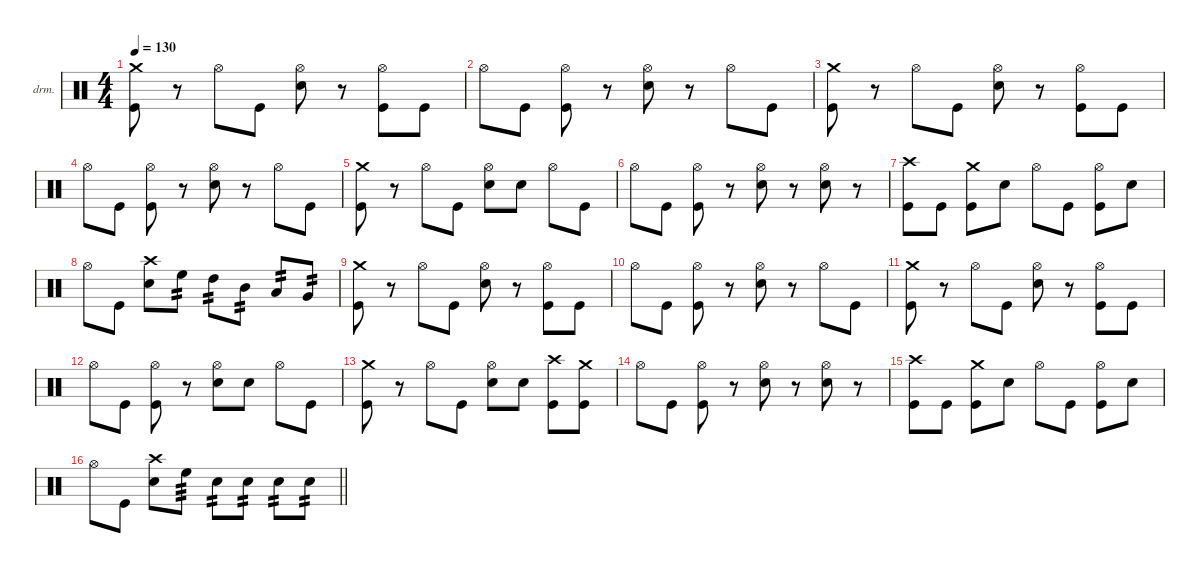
\defaultSystemsLayout 4
\hideDynamics
\bracketExtendMode nobrackets
\firstSystemTrackNameOrientation horizontal
\otherSystemsTrackNameOrientation horizontal
\track ("Drums" "drm.") {instrument percussion}
\staff {score}
\articulation defaults
\ts (4 4)
\section ("" "")
\tempo 130
\clef neutral
\ks c
("Crash medium (hit)" "Kick (hit)").8{dy f} r.8 "Hi-Hat (open)".8 "Kick (hit)".8 ("Hi-Hat (open)" "Snare (hit) 2").8 r.8 ("Hi-Hat (open)" "Kick (hit)").8 "Kick (hit)".8 |
"Hi-Hat (open)".8 "Kick (hit)".8 ("Hi-Hat (open)" "Kick (hit)").8 r.8 ("Hi-Hat (open)" "Snare (hit) 2").8 r.8 "Hi-Hat (open)".8 "Kick (hit)".8 |
("Crash medium (hit)" "Kick (hit)").8 r.8 "Hi-Hat (open)".8 "Kick (hit)".8 ("Hi-Hat (open)" "Snare (hit) 2").8 r.8 ("Hi-Hat (open)" "Kick (hit)").8 "Kick (hit)".8 |
"Hi-Hat (open)".8 "Kick (hit)".8 ("Hi-Hat (open)" "Kick (hit)").8 r.8 ("Hi-Hat (open)" "Snare (hit) 2").8 r.8 "Hi-Hat (open)".8 "Kick (hit)".8 |
("Crash medium (hit)" "Kick (hit)").8 r.8 "Hi-Hat (open)".8 "Kick (hit)".8 ("Hi-Hat (open)" "Snare (hit) 2").8 "Snare (hit) 2".8 "Hi-Hat (open)".8 "Kick (hit)".8 |
"Hi-Hat (open)".8 "Kick (hit)".8 ("Hi-Hat (open)" "Kick (hit)").8 r.8 ("Hi-Hat (open)" "Snare (hit) 2").8 r.8 ("Hi-Hat (open)" "Snare (hit) 2").8 r.8 |
("Crash high (hit)" "Kick (hit)").8 "Kick (hit)".8 ("Crash medium (hit)" "Kick (hit)").8 "Snare (hit) 2".8 "Hi-Hat (open)".8 "Kick (hit)".8 ("Hi-Hat (open)" "Kick (hit)").8 "Snare (hit) 2".8 |
"Hi-Hat (open)".8 "Kick (hit)".8 ("Crash high (hit)" "Snare (hit) 2").8 "High Floor Tom (hit)".8{tp 2} "High Tom (hit)".8{tp 2} "Mid Tom (hit)".8{tp 2} "Low Tom (hit)".8{tp 2} "Very Low Tom (hit)".8{tp 2} |
("Crash medium (hit)" "Kick (hit)").8 r.8 "Hi-Hat (open)".8 "Kick (hit)".8 ("Hi-Hat (open)" "Snare (hit) 2").8 r.8 ("Hi-Hat (open)" "Kick (hit)").8 "Kick (hit)".8 |
"Hi-Hat (open)".8 "Kick (hit)".8 ("Hi-Hat (open)" "Kick (hit)").8 r.8 ("Hi-Hat (open)" "Snare (hit) 2").8 r.8 "Hi-Hat (open)".8 "Kick (hit)".8 |
("Crash medium (hit)" "Kick (hit)").8 r.8 "Hi-Hat (open)".8 "Kick (hit)".8 ("Hi-Hat (open)" "Snare (hit) 2").8 r.8 ("Hi-Hat (open)" "Kick (hit)").8 "Kick (hit)".8 |
"Hi-Hat (open)".8 "Kick (hit)".8 ("Hi-Hat (open)" "Kick (hit)").8 r.8 ("Hi-Hat (open)" "Snare (hit) 2").8 "Snare (hit) 2".8 "Hi-Hat (open)".8 "Kick (hit)".8 |
("Crash medium (hit)" "Kick (hit)").8 r.8 "Hi-Hat (open)".8 "Kick (hit)".8 ("Hi-Hat (open)" "Snare (hit) 2").8 "Snare (hit) 2".8 ("Crash high (hit)" "Kick (hit)").8 ("Crash medium (hit)" "Kick (hit)").8 |
"Hi-Hat (open)".8 "Kick (hit)".8 ("Hi-Hat (open)" "Kick (hit)").8 r.8 ("Hi-Hat (open)" "Snare (hit) 2").8 r.8 ("Hi-Hat (open)" "Snare (hit) 2").8 r.8 |
("Crash high (hit)" "Kick (hit)").8 "Kick (hit)".8 ("Crash medium (hit)" "Kick (hit)").8 "Snare (hit) 2".8 "Hi-Hat (open)".8 "Kick (hit)".8 ("Hi-Hat (open)" "Kick (hit)").8 "Snare (hit) 2".8 |
\barLineRight lightlight "Hi-Hat (open)".8 "Kick (hit)".8
("Crash high (hit)" "Snare (hit) 2").8 "High Floor Tom (hit)".8{tp 3} "Snare (hit) 2".8{tp 2} "Snare (hit) 2".8{tp 2} "Snare (hit) 2".8{tp 2} "Snare (hit) 2".8{tp 2}
